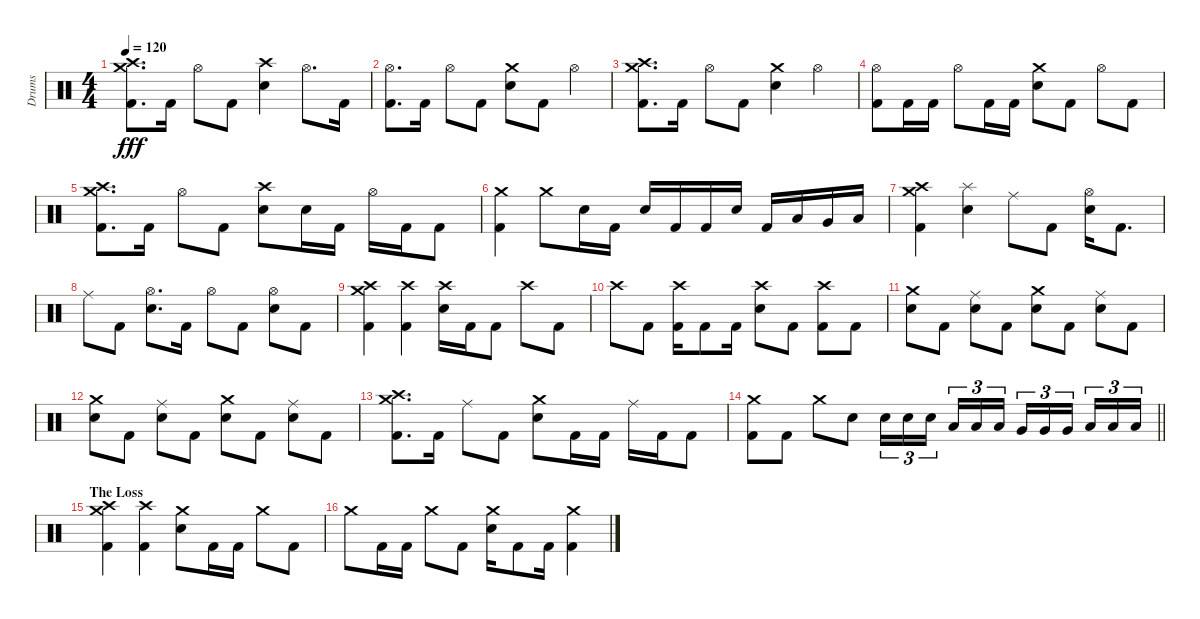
\track ("Drums" "Drums") {instrument percussion}
\staff {score}
\articulation defaults
\ts (4 4)
\tempo 120
\clef neutral
\ks c
("Crash medium (hit)" "Crash high (hit)" "Kick (hit) 2").8{d dy fff} "Kick (hit) 2".16 "Hi-Hat (open)".8 "Kick (hit) 2".8 ("Crash high (hit)" "Electric Snare (hit)").4 "Hi-Hat (open)".8{d} "Kick (hit) 2".16 |
("Hi-Hat (open)" "Kick (hit) 2").8{d} "Kick (hit) 2".16 "Hi-Hat (open)".8 "Kick (hit) 2".8 ("Crash medium (hit)" "Electric Snare (hit)").8 "Kick (hit) 2".8 "Hi-Hat (open)".4 |
("Crash medium (hit)" "Crash high (hit)" "Kick (hit) 2").8{d} "Kick (hit) 2".16 "Hi-Hat (open)".8 "Kick (hit) 2".8 ("Crash medium (hit)" "Electric Snare (hit)").4 "Hi-Hat (open)".4 |
("Hi-Hat (open)" "Kick (hit) 2").8 "Kick (hit) 2".16 "Kick (hit) 2".16 "Hi-Hat (open)".8 "Kick (hit) 2".16 "Kick (hit) 2".16 ("Crash medium (hit)" "Electric Snare (hit)").8 "Kick (hit) 2".8 "Hi-Hat (open)".8 "Kick (hit) 2".8 |
("Crash medium (hit)" "Crash high (hit)" "Kick (hit) 2").8{d} "Kick (hit) 2".16 "Hi-Hat (open)".8 "Kick (hit) 2".8 ("Crash high (hit)" "Electric Snare (hit)").8 "Electric Snare (hit)".16 "Kick (hit) 2".16 "Hi-Hat (open)".16 "Kick (hit) 2".16 "Kick (hit) 2".8 |
("Crash medium (hit)" "Kick (hit) 2").4 "Crash medium (hit)".8 "Electric Snare (hit)".16 "Kick (hit) 2".16 "Electric Snare (hit)".16 "Kick (hit) 2".16 "Kick (hit) 2".16 "Electric Snare (hit)".16 "Kick (hit) 2".16 "Low Tom (hit)".16 "Very Low Tom (hit)".16 "Low Floor Tom (hit)".16 |
("Crash medium (hit)" "Crash high (hit)" "Kick (hit) 2").4 ("Splash (hit)" "Electric Snare (hit)").4 "Ride (middle)".8 "Kick (hit) 2".8 ("Hi-Hat (open)" "Electric Snare (hit)").16 "Kick (hit) 2".8{d} |
"Ride (middle)".8 "Kick (hit) 2".8 ("Hi-Hat (open)" "Electric Snare (hit)").8{d} "Kick (hit) 2".16 "Hi-Hat (open)".8 "Kick (hit) 2".8 ("Hi-Hat (open)" "Electric Snare (hit)").8 "Kick (hit) 2".8 |
("Crash medium (hit)" "Crash high (hit)" "Kick (hit) 2").4 ("Crash high (hit)" "Kick (hit) 2").4 ("Crash high (hit)" "Electric Snare (hit)").16 "Kick (hit) 2".16 "Kick (hit) 2".8 "Crash high (hit)".8 "Kick (hit) 2".8 |
"Crash high (hit)".8 "Kick (hit) 2".8 ("Crash high (hit)" "Kick (hit) 2").16 "Kick (hit) 2".8 "Kick (hit) 2".16 ("Crash high (hit)" "Electric Snare (hit)").8 "Kick (hit) 2".8 ("Crash high (hit)" "Kick (hit) 2").8 "Kick (hit) 2".8 |
("Crash medium (hit)" "Electric Snare (hit)").8 "Kick (hit) 2".8 ("Ride (middle)" "Electric Snare (hit)").8 "Kick (hit) 2".8 ("Crash medium (hit)" "Electric Snare (hit)").8 "Kick (hit) 2".8 ("Ride (middle)" "Electric Snare (hit)").8 "Kick (hit) 2".8 |
("Crash medium (hit)" "Electric Snare (hit)").8 "Kick (hit) 2".8 ("Ride (middle)" "Electric Snare (hit)").8 "Kick (hit) 2".8 ("Crash medium (hit)" "Electric Snare (hit)").8 "Kick (hit) 2".8 ("Ride (middle)" "Electric Snare (hit)").8 "Kick (hit) 2".8 |
("Crash medium (hit)" "Crash high (hit)" "Kick (hit) 2").8{d} "Kick (hit) 2".16 "Ride (middle)".8 "Kick (hit) 2".8 ("Crash medium (hit)" "Electric Snare (hit)").8 "Kick (hit) 2".16 "Kick (hit) 2".16 "Ride (middle)".16 "Kick (hit) 2".16 "Kick (hit) 2".8 |
\barLineRight lightlight
("Crash medium (hit)" "Kick (hit) 2").8 "Kick (hit) 2".8 "Crash medium (hit)".8 "Electric Snare (hit)".8 "Electric Snare (hit)".16{tu (3 2)} "Electric Snare (hit)".16{tu (3 2)} "Electric Snare (hit)".16{tu (3 2) beam splitsecondary} "Low Tom (hit)".16{tu (3 2)} "Low Tom (hit)".16{tu (3 2)} "Low Tom (hit)".16{tu (3 2)} "Very Low Tom (hit)".16{tu (3 2)} "Very Low Tom (hit)".16{tu (3 2)} "Very Low Tom (hit)".16{tu (3 2) beam splitsecondary} "Low Floor Tom (hit)".16{tu (3 2)} "Low Floor Tom (hit)".16{tu (3 2)} "Low Floor Tom (hit)".16{tu (3 2)} |
\section ("" "The Loss")
("Crash medium (hit)" "Crash high (hit)" "Kick (hit) 2").4 ("Crash high (hit)" "Kick (hit) 2").4 ("Crash medium (hit)" "Electric Snare (hit)").8 "Kick (hit) 2".16 "Kick (hit) 2".16 "Crash medium (hit)".8 "Kick (hit) 2".8 |
"Crash medium (hit)".8 "Kick (hit) 2".16 "Kick (hit) 2".16 "Crash medium (hit)".8 "Kick (hit) 2".8 ("Crash medium (hit)" "Electric Snare (hit)").16 "Kick (hit) 2".8 "Kick (hit) 2".16 ("Crash medium (hit)" "Kick (hit) 2").4
